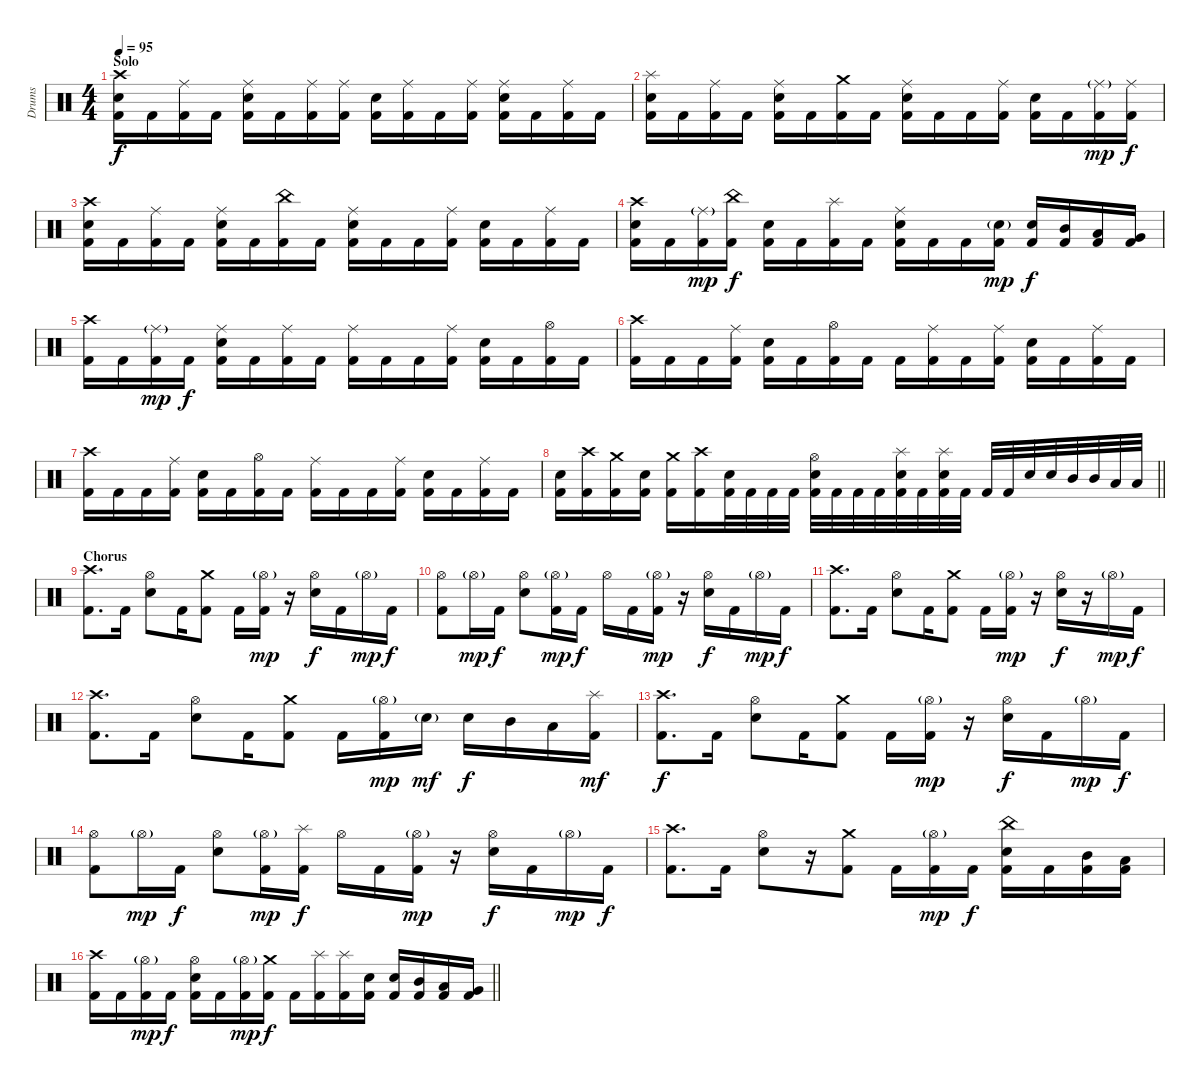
\track ("Drums" "Drums") {instrument percussion}
\staff {score}
\articulation defaults
\ts (4 4)
\section ("" "Solo")
\tempo 95
\clef neutral
\ks c
("Crash high (hit)" "Electric Snare (hit)" "Kick (hit) 2").16{dy f} "Kick (hit) 2".16 ("Ride (middle)" "Kick (hit) 2").16 "Kick (hit) 2".16 ("Ride (middle)" "Electric Snare (hit)" "Kick (hit) 2").16 "Kick (hit) 2".16 ("Ride (middle)" "Kick (hit) 2").16 ("Ride (middle)" "Kick (hit) 2").16 ("Electric Snare (hit)" "Kick (hit) 2").16 ("Ride (middle)" "Kick (hit) 2").16 "Kick (hit) 2".16 ("Ride (middle)" "Kick (hit) 2").16 ("Ride (middle)" "Electric Snare (hit)" "Kick (hit) 2").16 "Kick (hit) 2".16 ("Ride (middle)" "Kick (hit) 2").16 "Kick (hit) 2".16 |
("Splash (hit)" "Electric Snare (hit)" "Kick (hit) 2").16 "Kick (hit) 2".16 ("Ride (middle)" "Kick (hit) 2").16 "Kick (hit) 2".16 ("Ride (middle)" "Electric Snare (hit)" "Kick (hit) 2").16 "Kick (hit) 2".16 ("Crash medium (hit)" "Kick (hit) 2").16 "Kick (hit) 2".16 ("Ride (middle)" "Electric Snare (hit)" "Kick (hit) 2").16 "Kick (hit) 2".16 "Kick (hit) 2".16 ("Ride (middle)" "Kick (hit) 2").16 ("Electric Snare (hit)" "Kick (hit) 2").16 "Kick (hit) 2".16 ("Ride (middle)"{g} "Kick (hit) 2").16{dy mp} ("Ride (middle)" "Kick (hit) 2").16{dy f} |
("Crash high (hit)" "Electric Snare (hit)" "Kick (hit) 2").16 "Kick (hit) 2".16 ("Ride (middle)" "Kick (hit) 2").16 "Kick (hit) 2".16 ("Ride (middle)" "Electric Snare (hit)" "Kick (hit) 2").16 "Kick (hit) 2".16 ("China (hit)" "Kick (hit) 2").16 "Kick (hit) 2".16 ("Ride (middle)" "Electric Snare (hit)" "Kick (hit) 2").16 "Kick (hit) 2".16 "Kick (hit) 2".16 ("Ride (middle)" "Kick (hit) 2").16 ("Electric Snare (hit)" "Kick (hit) 2").16 "Kick (hit) 2".16 ("Ride (middle)" "Kick (hit) 2").16 "Kick (hit) 2".16 |
("Crash high (hit)" "Electric Snare (hit)" "Kick (hit) 2").16 "Kick (hit) 2".16 ("Ride (middle)"{g} "Kick (hit) 2").16{dy mp} ("China (hit)" "Kick (hit) 2").16{dy f} ("Electric Snare (hit)" "Kick (hit) 2").16 "Kick (hit) 2".16 ("Splash (hit)" "Kick (hit) 2").16 "Kick (hit) 2".16 ("Ride (middle)" "Electric Snare (hit)" "Kick (hit) 2").16 "Kick (hit) 2".16 "Kick (hit) 2".16 ("Electric Snare (hit)"{g} "Kick (hit) 2").16{dy mp} ("Electric Snare (hit)" "Kick (hit) 2").16{dy f} ("Mid Tom (hit)" "Kick (hit) 2").16 ("Low Tom (hit)" "Kick (hit) 2").16 ("Very Low Tom (hit)" "Kick (hit) 2").16 |
("Crash high (hit)" "Kick (hit) 2").16 "Kick (hit) 2".16 ("Ride (middle)"{g} "Kick (hit) 2").16{dy mp} "Kick (hit) 2".16{dy f} ("Ride (middle)" "Electric Snare (hit)" "Kick (hit) 2").16 "Kick (hit) 2".16 ("Ride (middle)" "Kick (hit) 2").16 "Kick (hit) 2".16 ("Ride (middle)" "Kick (hit) 2").16 "Kick (hit) 2".16 "Kick (hit) 2".16 ("Ride (middle)" "Kick (hit) 2").16 ("Electric Snare (hit)" "Kick (hit) 2").16 "Kick (hit) 2".16 ("Hi-Hat (open)" "Kick (hit) 2").16 "Kick (hit) 2".16 |
("Crash high (hit)" "Kick (hit) 2").16 "Kick (hit) 2".16 "Kick (hit) 2".16 ("Ride (middle)" "Kick (hit) 2").16 ("Electric Snare (hit)" "Kick (hit) 2").16 "Kick (hit) 2".16 ("Hi-Hat (open)" "Kick (hit) 2").16 "Kick (hit) 2".16 "Kick (hit) 2".16 ("Ride (middle)" "Kick (hit) 2").16 "Kick (hit) 2".16 ("Ride (middle)" "Kick (hit) 2").16 ("Electric Snare (hit)" "Kick (hit) 2").16 "Kick (hit) 2".16 ("Ride (middle)" "Kick (hit) 2").16 "Kick (hit) 2".16 |
("Crash high (hit)" "Kick (hit) 2").16 "Kick (hit) 2".16 "Kick (hit) 2".16 ("Ride (middle)" "Kick (hit) 2").16 ("Electric Snare (hit)" "Kick (hit) 2").16 "Kick (hit) 2".16 ("Hi-Hat (open)" "Kick (hit) 2").16 "Kick (hit) 2".16 ("Ride (middle)" "Kick (hit) 2").16 "Kick (hit) 2".16 "Kick (hit) 2".16 ("Ride (middle)" "Kick (hit) 2").16 ("Electric Snare (hit)" "Kick (hit) 2").16 "Kick (hit) 2".16 ("Ride (middle)" "Kick (hit) 2").16 "Kick (hit) 2".16 |
\barLineRight lightlight
("Electric Snare (hit)" "Kick (hit) 2").16 ("Crash high (hit)" "Kick (hit) 2").16 ("Crash medium (hit)" "Kick (hit) 2").16 ("Electric Snare (hit)" "Kick (hit) 2").16 ("Crash medium (hit)" "Kick (hit) 2").16 ("Crash high (hit)" "Kick (hit) 2").16 ("Electric Snare (hit)" "Kick (hit) 2").32 "Kick (hit) 2".32 "Kick (hit) 2".32 "Kick (hit) 2".32 ("Hi-Hat (open)" "Electric Snare (hit)" "Kick (hit) 2").32 "Kick (hit) 2".32 "Kick (hit) 2".32 "Kick (hit) 2".32 ("Splash (hit)" "Electric Snare (hit)" "Kick (hit) 2").32 "Kick (hit) 2".32 ("Splash (hit)" "Electric Snare (hit)" "Kick (hit) 2").32 "Kick (hit) 2".32 "Kick (hit) 2".32 "Kick (hit) 2".32 "Electric Snare (hit)".32 "Electric Snare (hit)".32 "Mid Tom (hit)".32 "Mid Tom (hit)".32 "Low Tom (hit)".32 "Low Tom (hit)".32 |
\section ("" "Chorus")
("Crash high (hit)" "Kick (hit) 2").8{d} "Kick (hit) 2".16 ("Hi-Hat (open)" "Electric Snare (hit)").8 "Kick (hit) 2".16 ("Crash medium (hit)" "Kick (hit) 2").8 "Kick (hit) 2".16 ("Hi-Hat (open)"{g} "Kick (hit) 2").16{dy mp} r.16 ("Hi-Hat (open)" "Electric Snare (hit)").16{dy f} "Kick (hit) 2".16 "Hi-Hat (open)"{g}.16{dy mp} "Kick (hit) 2".16{dy f} |
("Hi-Hat (open)" "Kick (hit) 2").8 "Hi-Hat (open)"{g}.16{dy mp} "Kick (hit) 2".16{dy f} ("Hi-Hat (open)" "Electric Snare (hit)").8 ("Hi-Hat (open)"{g} "Kick (hit) 2").16{dy mp} "Kick (hit) 2".16{dy f} "Hi-Hat (open)".16 "Kick (hit) 2".16 ("Hi-Hat (open)"{g} "Kick (hit) 2").16{dy mp} r.16 ("Hi-Hat (open)" "Electric Snare (hit)").16{dy f} "Kick (hit) 2".16 "Hi-Hat (open)"{g}.16{dy mp} "Kick (hit) 2".16{dy f} |
("Crash high (hit)" "Kick (hit) 2").8{d} "Kick (hit) 2".16 ("Hi-Hat (open)" "Electric Snare (hit)").8 "Kick (hit) 2".16 ("Crash medium (hit)" "Kick (hit) 2").8 "Kick (hit) 2".16 ("Hi-Hat (open)"{g} "Kick (hit) 2").16{dy mp} r.16 ("Hi-Hat (open)" "Electric Snare (hit)").16{dy f} r.16 "Hi-Hat (open)"{g}.16{dy mp} "Kick (hit) 2".16{dy f} |
("Crash high (hit)" "Kick (hit) 2").8{d} "Kick (hit) 2".16 ("Hi-Hat (open)" "Electric Snare (hit)").8 "Kick (hit) 2".16 ("Crash medium (hit)" "Kick (hit) 2").8 "Kick (hit) 2".16 ("Hi-Hat (open)"{g} "Kick (hit) 2").16{dy mp} "Electric Snare (hit)"{g}.16{dy mf} "Electric Snare (hit)".16{dy f} "Mid Tom (hit)".16 "Low Tom (hit)".16 ("Splash (hit)" "Kick (hit) 2").16{dy mf} |
("Crash high (hit)" "Kick (hit) 2").8{d dy f} "Kick (hit) 2".16 ("Hi-Hat (open)" "Electric Snare (hit)").8 "Kick (hit) 2".16 ("Crash medium (hit)" "Kick (hit) 2").8 "Kick (hit) 2".16 ("Hi-Hat (open)"{g} "Kick (hit) 2").16{dy mp} r.16 ("Hi-Hat (open)" "Electric Snare (hit)").16{dy f} "Kick (hit) 2".16 "Hi-Hat (open)"{g}.16{dy mp} "Kick (hit) 2".16{dy f} |
("Hi-Hat (open)" "Kick (hit) 2").8 "Hi-Hat (open)"{g}.16{dy mp} "Kick (hit) 2".16{dy f} ("Hi-Hat (open)" "Electric Snare (hit)").8 ("Hi-Hat (open)"{g} "Kick (hit) 2").16{dy mp} ("Splash (hit)" "Kick (hit) 2").16{dy f} "Hi-Hat (open)".16 "Kick (hit) 2".16 ("Hi-Hat (open)"{g} "Kick (hit) 2").16{dy mp} r.16 ("Hi-Hat (open)" "Electric Snare (hit)").16{dy f} "Kick (hit) 2".16 "Hi-Hat (open)"{g}.16{dy mp} "Kick (hit) 2".16{dy f} |
("Crash high (hit)" "Kick (hit) 2").8{d} "Kick (hit) 2".16 ("Hi-Hat (open)" "Electric Snare (hit)").8 r.16 ("Crash medium (hit)" "Kick (hit) 2").8 "Kick (hit) 2".16 ("Hi-Hat (open)"{g} "Kick (hit) 2").16{dy mp} "Kick (hit) 2".16{dy f} ("China (hit)" "Electric Snare (hit)" "Kick (hit) 2").16 "Kick (hit) 2".16 ("Mid Tom (hit)" "Kick (hit) 2").16 ("Low Tom (hit)" "Kick (hit) 2").16 |
\barLineRight lightlight
("Crash high (hit)" "Kick (hit) 2").16 "Kick (hit) 2".16 ("Hi-Hat (open)"{g} "Kick (hit) 2").16{dy mp} "Kick (hit) 2".16{dy f} ("Hi-Hat (open)" "Electric Snare (hit)" "Kick (hit) 2").16 "Kick (hit) 2".16 ("Hi-Hat (open)"{g} "Kick (hit) 2").16{dy mp} ("Crash medium (hit)" "Kick (hit) 2").16{dy f} "Kick (hit) 2".16 ("Splash (hit)" "Kick (hit) 2").16 ("Splash (hit)" "Kick (hit) 2").16 ("Electric Snare (hit)" "Kick (hit) 2").16 ("Electric Snare (hit)" "Kick (hit) 2").16 ("Mid Tom (hit)" "Kick (hit) 2").16 ("Low Tom (hit)" "Kick (hit) 2").16 ("Very Low Tom (hit)" "Kick (hit) 2").16
